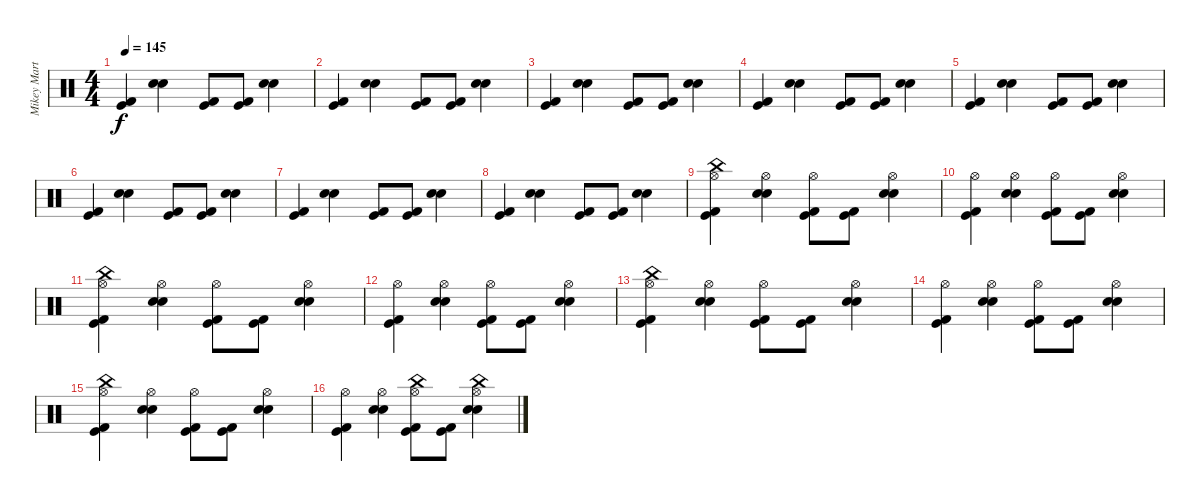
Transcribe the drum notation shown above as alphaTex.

\track ("Mikey Martin" "Mikey Mart") {instrument percussion}
\staff {score}
\articulation defaults
\ts (4 4)
\tempo 145
\clef neutral
\ks c
("Kick (hit)" "Kick (hit) 2").4{dy f} ("Snare (hit) 2" "Electric Snare (hit)").4 ("Kick (hit)" "Kick (hit) 2").8 ("Kick (hit)" "Kick (hit) 2").8 ("Snare (hit) 2" "Electric Snare (hit)").4 |
("Kick (hit)" "Kick (hit) 2").4 ("Snare (hit) 2" "Electric Snare (hit)").4 ("Kick (hit)" "Kick (hit) 2").8 ("Kick (hit)" "Kick (hit) 2").8 ("Snare (hit) 2" "Electric Snare (hit)").4 |
("Kick (hit)" "Kick (hit) 2").4 ("Snare (hit) 2" "Electric Snare (hit)").4 ("Kick (hit)" "Kick (hit) 2").8 ("Kick (hit)" "Kick (hit) 2").8 ("Snare (hit) 2" "Electric Snare (hit)").4 |
("Kick (hit)" "Kick (hit) 2").4 ("Snare (hit) 2" "Electric Snare (hit)").4 ("Kick (hit)" "Kick (hit) 2").8 ("Kick (hit)" "Kick (hit) 2").8 ("Snare (hit) 2" "Electric Snare (hit)").4 |
("Kick (hit)" "Kick (hit) 2").4 ("Snare (hit) 2" "Electric Snare (hit)").4 ("Kick (hit)" "Kick (hit) 2").8 ("Kick (hit)" "Kick (hit) 2").8 ("Snare (hit) 2" "Electric Snare (hit)").4 |
("Kick (hit)" "Kick (hit) 2").4 ("Snare (hit) 2" "Electric Snare (hit)").4 ("Kick (hit)" "Kick (hit) 2").8 ("Kick (hit)" "Kick (hit) 2").8 ("Snare (hit) 2" "Electric Snare (hit)").4 |
("Kick (hit)" "Kick (hit) 2").4 ("Snare (hit) 2" "Electric Snare (hit)").4 ("Kick (hit)" "Kick (hit) 2").8 ("Kick (hit)" "Kick (hit) 2").8 ("Snare (hit) 2" "Electric Snare (hit)").4 |
("Kick (hit)" "Kick (hit) 2").4 ("Snare (hit) 2" "Electric Snare (hit)").4 ("Kick (hit)" "Kick (hit) 2").8 ("Kick (hit)" "Kick (hit) 2").8 ("Snare (hit) 2" "Electric Snare (hit)").4 |
("China (hit)" "Hi-Hat (open)" "Kick (hit)" "Kick (hit) 2").4 ("Hi-Hat (open)" "Snare (hit) 2" "Electric Snare (hit)").4 ("Hi-Hat (open)" "Kick (hit)" "Kick (hit) 2").8 ("Kick (hit)" "Kick (hit) 2").8 ("Hi-Hat (open)" "Snare (hit) 2" "Electric Snare (hit)").4 |
("Hi-Hat (open)" "Kick (hit)" "Kick (hit) 2").4 ("Hi-Hat (open)" "Snare (hit) 2" "Electric Snare (hit)").4 ("Hi-Hat (open)" "Kick (hit)" "Kick (hit) 2").8 ("Kick (hit)" "Kick (hit) 2").8 ("Hi-Hat (open)" "Snare (hit) 2" "Electric Snare (hit)").4 |
("China (hit)" "Hi-Hat (open)" "Kick (hit)" "Kick (hit) 2").4 ("Hi-Hat (open)" "Snare (hit) 2" "Electric Snare (hit)").4 ("Hi-Hat (open)" "Kick (hit)" "Kick (hit) 2").8 ("Kick (hit)" "Kick (hit) 2").8 ("Hi-Hat (open)" "Snare (hit) 2" "Electric Snare (hit)").4 |
("Hi-Hat (open)" "Kick (hit)" "Kick (hit) 2").4 ("Hi-Hat (open)" "Snare (hit) 2" "Electric Snare (hit)").4 ("Hi-Hat (open)" "Kick (hit)" "Kick (hit) 2").8 ("Kick (hit)" "Kick (hit) 2").8 ("Hi-Hat (open)" "Snare (hit) 2" "Electric Snare (hit)").4 |
("China (hit)" "Hi-Hat (open)" "Kick (hit)" "Kick (hit) 2").4 ("Hi-Hat (open)" "Snare (hit) 2" "Electric Snare (hit)").4 ("Hi-Hat (open)" "Kick (hit)" "Kick (hit) 2").8 ("Kick (hit)" "Kick (hit) 2").8 ("Hi-Hat (open)" "Snare (hit) 2" "Electric Snare (hit)").4 |
("Hi-Hat (open)" "Kick (hit)" "Kick (hit) 2").4 ("Hi-Hat (open)" "Snare (hit) 2" "Electric Snare (hit)").4 ("Hi-Hat (open)" "Kick (hit)" "Kick (hit) 2").8 ("Kick (hit)" "Kick (hit) 2").8 ("Hi-Hat (open)" "Snare (hit) 2" "Electric Snare (hit)").4 |
("China (hit)" "Hi-Hat (open)" "Kick (hit)" "Kick (hit) 2").4 ("Hi-Hat (open)" "Snare (hit) 2" "Electric Snare (hit)").4 ("Hi-Hat (open)" "Kick (hit)" "Kick (hit) 2").8 ("Kick (hit)" "Kick (hit) 2").8 ("Hi-Hat (open)" "Snare (hit) 2" "Electric Snare (hit)").4 |
("Hi-Hat (open)" "Kick (hit)" "Kick (hit) 2").4 ("Hi-Hat (open)" "Snare (hit) 2" "Electric Snare (hit)").4 ("China (hit)" "Hi-Hat (open)" "Kick (hit)" "Kick (hit) 2").8 ("Kick (hit)" "Kick (hit) 2").8 ("China (hit)" "Hi-Hat (open)" "Snare (hit) 2" "Electric Snare (hit)").4
